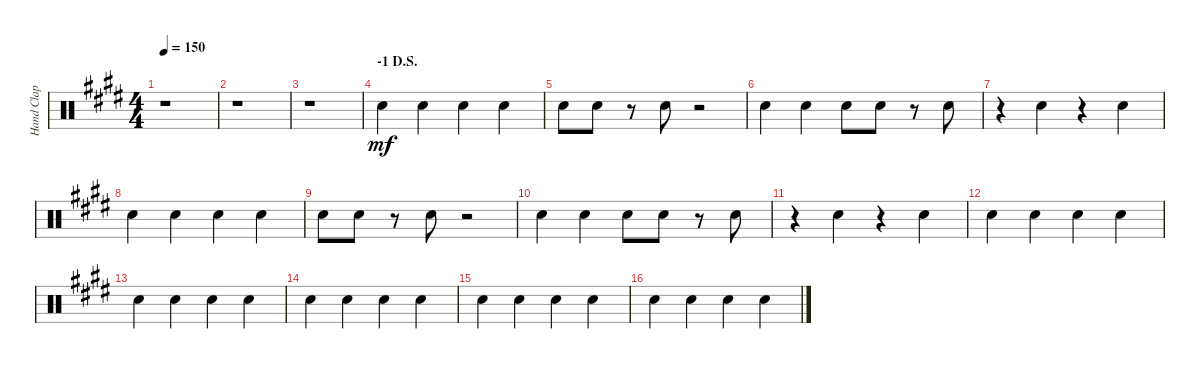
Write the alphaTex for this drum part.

\track ("Hand Clap" "Hand Clap") {instrument percussion}
\staff {score}
\articulation defaults
\ts (4 4)
\tempo 150
\clef neutral
\ks e
r.1{dy mf} |
r.1 |
r.1 |
\section ("" "-1 D.S.")
"Hand Clap (hit)".4 "Hand Clap (hit)".4 "Hand Clap (hit)".4 "Hand Clap (hit)".4 |
"Hand Clap (hit)".8 "Hand Clap (hit)".8 r.8 "Hand Clap (hit)".8 r.2 |
"Hand Clap (hit)".4 "Hand Clap (hit)".4 "Hand Clap (hit)".8 "Hand Clap (hit)".8 r.8 "Hand Clap (hit)".8 |
r.4 "Hand Clap (hit)".4 r.4 "Hand Clap (hit)".4 |
"Hand Clap (hit)".4 "Hand Clap (hit)".4 "Hand Clap (hit)".4 "Hand Clap (hit)".4 |
"Hand Clap (hit)".8 "Hand Clap (hit)".8 r.8 "Hand Clap (hit)".8 r.2 |
"Hand Clap (hit)".4 "Hand Clap (hit)".4 "Hand Clap (hit)".8 "Hand Clap (hit)".8 r.8 "Hand Clap (hit)".8 |
r.4 "Hand Clap (hit)".4 r.4 "Hand Clap (hit)".4 |
"Hand Clap (hit)".4 "Hand Clap (hit)".4 "Hand Clap (hit)".4 "Hand Clap (hit)".4 |
"Hand Clap (hit)".4 "Hand Clap (hit)".4 "Hand Clap (hit)".4 "Hand Clap (hit)".4 |
"Hand Clap (hit)".4 "Hand Clap (hit)".4 "Hand Clap (hit)".4 "Hand Clap (hit)".4 |
"Hand Clap (hit)".4 "Hand Clap (hit)".4 "Hand Clap (hit)".4 "Hand Clap (hit)".4 |
"Hand Clap (hit)".4 "Hand Clap (hit)".4 "Hand Clap (hit)".4 "Hand Clap (hit)".4
